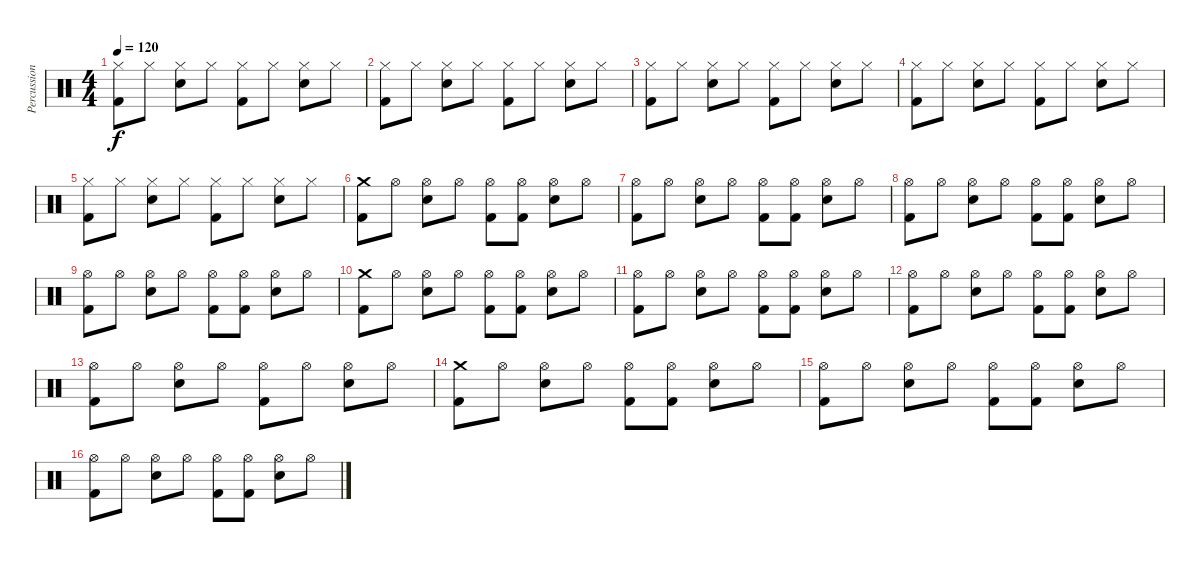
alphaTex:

\track ("Percussioni" "Percussion") {instrument percussion}
\staff {score}
\articulation defaults
\ts (4 4)
\tempo 120
\clef neutral
\ks c
("Hi-Hat (closed)" "Kick (hit) 2").8{dy f} "Hi-Hat (closed)".8 ("Hi-Hat (closed)" "Snare (hit) 2").8 "Hi-Hat (closed)".8 ("Hi-Hat (closed)" "Kick (hit) 2").8 "Hi-Hat (closed)".8 ("Hi-Hat (closed)" "Snare (hit) 2").8 "Hi-Hat (closed)".8 |
("Hi-Hat (closed)" "Kick (hit) 2").8 "Hi-Hat (closed)".8 ("Hi-Hat (closed)" "Snare (hit) 2").8 "Hi-Hat (closed)".8 ("Hi-Hat (closed)" "Kick (hit) 2").8 "Hi-Hat (closed)".8 ("Hi-Hat (closed)" "Snare (hit) 2").8 "Hi-Hat (closed)".8 |
("Hi-Hat (closed)" "Kick (hit) 2").8 "Hi-Hat (closed)".8 ("Hi-Hat (closed)" "Snare (hit) 2").8 "Hi-Hat (closed)".8 ("Hi-Hat (closed)" "Kick (hit) 2").8 "Hi-Hat (closed)".8 ("Hi-Hat (closed)" "Snare (hit) 2").8 "Hi-Hat (closed)".8 |
("Hi-Hat (closed)" "Kick (hit) 2").8 "Hi-Hat (closed)".8 ("Hi-Hat (closed)" "Snare (hit) 2").8 "Hi-Hat (closed)".8 ("Hi-Hat (closed)" "Kick (hit) 2").8 "Hi-Hat (closed)".8 ("Hi-Hat (closed)" "Snare (hit) 2").8 "Hi-Hat (closed)".8 |
("Hi-Hat (closed)" "Kick (hit) 2").8 "Hi-Hat (closed)".8 ("Hi-Hat (closed)" "Snare (hit) 2").8 "Hi-Hat (closed)".8 ("Hi-Hat (closed)" "Kick (hit) 2").8 "Hi-Hat (closed)".8 ("Hi-Hat (closed)" "Snare (hit) 2").8 "Hi-Hat (closed)".8 |
("Crash medium (hit)" "Kick (hit) 2").8 "Hi-Hat (open)".8 ("Hi-Hat (open)" "Snare (hit) 2").8 "Hi-Hat (open)".8 ("Hi-Hat (open)" "Kick (hit) 2").8 ("Hi-Hat (open)" "Kick (hit) 2").8 ("Hi-Hat (open)" "Snare (hit) 2").8 "Hi-Hat (open)".8 |
("Hi-Hat (open)" "Kick (hit) 2").8 "Hi-Hat (open)".8 ("Hi-Hat (open)" "Snare (hit) 2").8 "Hi-Hat (open)".8 ("Hi-Hat (open)" "Kick (hit) 2").8 ("Hi-Hat (open)" "Kick (hit) 2").8 ("Hi-Hat (open)" "Snare (hit) 2").8 "Hi-Hat (open)".8 |
("Hi-Hat (open)" "Kick (hit) 2").8 "Hi-Hat (open)".8 ("Hi-Hat (open)" "Snare (hit) 2").8 "Hi-Hat (open)".8 ("Hi-Hat (open)" "Kick (hit) 2").8 ("Hi-Hat (open)" "Kick (hit) 2").8 ("Hi-Hat (open)" "Snare (hit) 2").8 "Hi-Hat (open)".8 |
("Hi-Hat (open)" "Kick (hit) 2").8 "Hi-Hat (open)".8 ("Hi-Hat (open)" "Snare (hit) 2").8 "Hi-Hat (open)".8 ("Hi-Hat (open)" "Kick (hit) 2").8 ("Hi-Hat (open)" "Kick (hit) 2").8 ("Hi-Hat (open)" "Snare (hit) 2").8 "Hi-Hat (open)".8 |
("Crash medium (hit)" "Kick (hit) 2").8 "Hi-Hat (open)".8 ("Hi-Hat (open)" "Snare (hit) 2").8 "Hi-Hat (open)".8 ("Hi-Hat (open)" "Kick (hit) 2").8 ("Hi-Hat (open)" "Kick (hit) 2").8 ("Hi-Hat (open)" "Snare (hit) 2").8 "Hi-Hat (open)".8 |
("Hi-Hat (open)" "Kick (hit) 2").8 "Hi-Hat (open)".8 ("Hi-Hat (open)" "Snare (hit) 2").8 "Hi-Hat (open)".8 ("Hi-Hat (open)" "Kick (hit) 2").8 ("Hi-Hat (open)" "Kick (hit) 2").8 ("Hi-Hat (open)" "Snare (hit) 2").8 "Hi-Hat (open)".8 |
("Hi-Hat (open)" "Kick (hit) 2").8 "Hi-Hat (open)".8 ("Hi-Hat (open)" "Snare (hit) 2").8 "Hi-Hat (open)".8 ("Hi-Hat (open)" "Kick (hit) 2").8 ("Hi-Hat (open)" "Kick (hit) 2").8 ("Hi-Hat (open)" "Snare (hit) 2").8 "Hi-Hat (open)".8 |
("Hi-Hat (open)" "Kick (hit) 2").8 "Hi-Hat (open)".8 ("Hi-Hat (open)" "Snare (hit) 2").8 "Hi-Hat (open)".8 ("Hi-Hat (open)" "Kick (hit) 2").8 "Hi-Hat (open)".8 ("Hi-Hat (open)" "Snare (hit) 2").8 "Hi-Hat (open)".8 |
("Crash medium (hit)" "Kick (hit) 2").8 "Hi-Hat (open)".8 ("Hi-Hat (open)" "Snare (hit) 2").8 "Hi-Hat (open)".8 ("Hi-Hat (open)" "Kick (hit) 2").8 ("Hi-Hat (open)" "Kick (hit) 2").8 ("Hi-Hat (open)" "Snare (hit) 2").8 "Hi-Hat (open)".8 |
("Hi-Hat (open)" "Kick (hit) 2").8 "Hi-Hat (open)".8 ("Hi-Hat (open)" "Snare (hit) 2").8 "Hi-Hat (open)".8 ("Hi-Hat (open)" "Kick (hit) 2").8 ("Hi-Hat (open)" "Kick (hit) 2").8 ("Hi-Hat (open)" "Snare (hit) 2").8 "Hi-Hat (open)".8 |
("Hi-Hat (open)" "Kick (hit) 2").8 "Hi-Hat (open)".8 ("Hi-Hat (open)" "Snare (hit) 2").8 "Hi-Hat (open)".8 ("Hi-Hat (open)" "Kick (hit) 2").8 ("Hi-Hat (open)" "Kick (hit) 2").8 ("Hi-Hat (open)" "Snare (hit) 2").8 "Hi-Hat (open)".8
